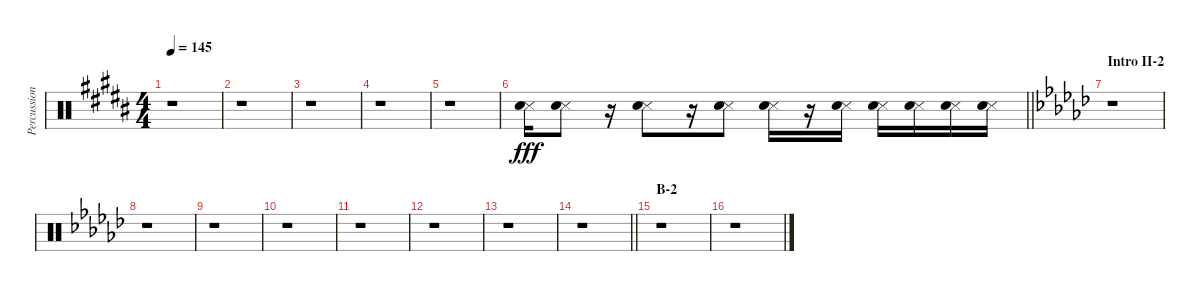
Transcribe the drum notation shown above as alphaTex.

\track ("Percussion" "Percussion") {instrument percussion}
\staff {score}
\articulation defaults
\ts (4 4)
\tempo 145
\clef neutral
\ks b
r.1{dy fff} |
r.1 |
r.1 |
r.1 |
r.1 |
\barLineRight lightlight
("Snare (side stick) 3" "Hand Clap (hit)").16 ("Snare (side stick) 3" "Hand Clap (hit)").8 r.16 ("Snare (side stick) 3" "Hand Clap (hit)").8 r.16 ("Snare (side stick) 3" "Hand Clap (hit)").8 ("Snare (side stick) 3" "Hand Clap (hit)").16 r.16 ("Snare (side stick) 3" "Hand Clap (hit)").16 ("Snare (side stick) 3" "Hand Clap (hit)").16 ("Snare (side stick) 3" "Hand Clap (hit)").16 ("Snare (side stick) 3" "Hand Clap (hit)").16 ("Snare (side stick) 3" "Hand Clap (hit)").16 |
\section ("" "Intro II-2")
\ks gb
r.1 |
r.1 |
r.1 |
r.1 |
r.1 |
r.1 |
r.1 |
\barLineRight lightlight
r.1 |
\section ("" "B-2")
r.1 |
r.1
